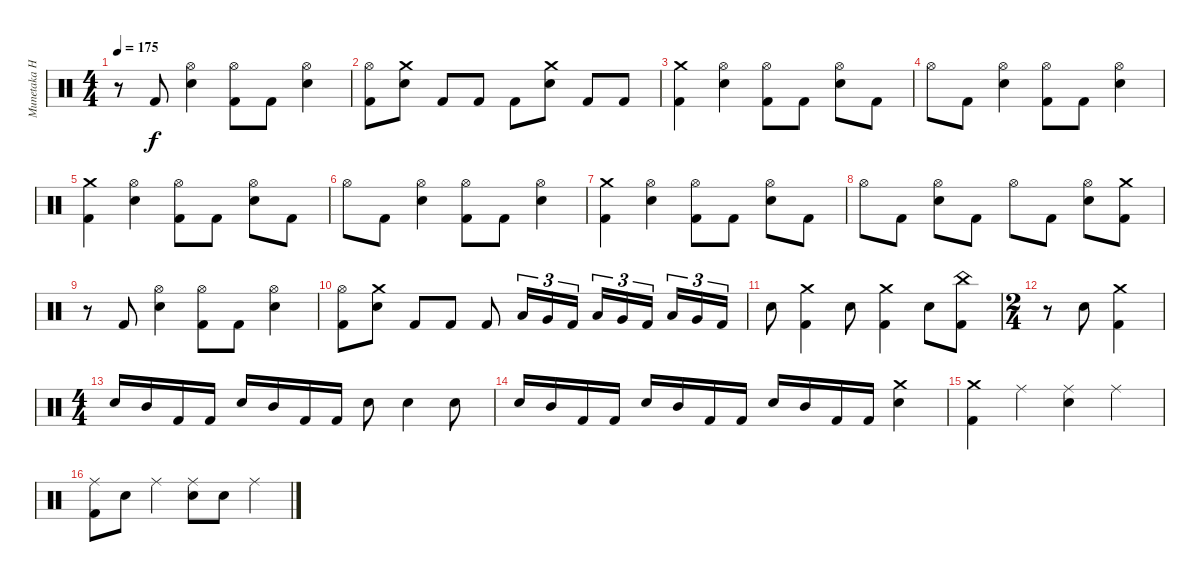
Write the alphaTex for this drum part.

\track ("Munetaka Higuchi" "Munetaka H") {instrument percussion}
\staff {score}
\articulation defaults
\ts (4 4)
\tempo 175
\clef neutral
\ks c
r.8{dy f} "Kick (hit) 2".8 ("Hi-Hat (open)" "Electric Snare (hit)").4 ("Hi-Hat (open)" "Kick (hit) 2").8 "Kick (hit) 2".8 ("Hi-Hat (open)" "Electric Snare (hit)").4 |
("Hi-Hat (open)" "Kick (hit) 2").8 ("Crash medium (hit)" "Electric Snare (hit)").8 "Kick (hit) 2".8 "Kick (hit) 2".8 "Kick (hit) 2".8 ("Crash medium (hit)" "Electric Snare (hit)").8 "Kick (hit) 2".8 "Kick (hit) 2".8 |
("Crash medium (hit)" "Kick (hit) 2").4 ("Hi-Hat (open)" "Electric Snare (hit)").4 ("Hi-Hat (open)" "Kick (hit) 2").8 "Kick (hit) 2".8 ("Hi-Hat (open)" "Electric Snare (hit)").8 "Kick (hit) 2".8 |
"Hi-Hat (open)".8 "Kick (hit) 2".8 ("Hi-Hat (open)" "Electric Snare (hit)").4 ("Hi-Hat (open)" "Kick (hit) 2").8 "Kick (hit) 2".8 ("Hi-Hat (open)" "Electric Snare (hit)").4 |
("Crash medium (hit)" "Kick (hit) 2").4 ("Hi-Hat (open)" "Electric Snare (hit)").4 ("Hi-Hat (open)" "Kick (hit) 2").8 "Kick (hit) 2".8 ("Hi-Hat (open)" "Electric Snare (hit)").8 "Kick (hit) 2".8 |
"Hi-Hat (open)".8 "Kick (hit) 2".8 ("Hi-Hat (open)" "Electric Snare (hit)").4 ("Hi-Hat (open)" "Kick (hit) 2").8 "Kick (hit) 2".8 ("Hi-Hat (open)" "Electric Snare (hit)").4 |
("Crash medium (hit)" "Kick (hit) 2").4 ("Hi-Hat (open)" "Electric Snare (hit)").4 ("Hi-Hat (open)" "Kick (hit) 2").8 "Kick (hit) 2".8 ("Hi-Hat (open)" "Electric Snare (hit)").8 "Kick (hit) 2".8 |
"Hi-Hat (open)".8 "Kick (hit) 2".8 ("Hi-Hat (open)" "Electric Snare (hit)").8 "Kick (hit) 2".8 "Hi-Hat (open)".8 "Kick (hit) 2".8 ("Hi-Hat (open)" "Electric Snare (hit)").8 ("Crash medium (hit)" "Kick (hit) 2").8 |
r.8 "Kick (hit) 2".8 ("Hi-Hat (open)" "Electric Snare (hit)").4 ("Hi-Hat (open)" "Kick (hit) 2").8 "Kick (hit) 2".8 ("Hi-Hat (open)" "Electric Snare (hit)").4 |
("Hi-Hat (open)" "Kick (hit) 2").8 ("Crash medium (hit)" "Electric Snare (hit)").8 "Kick (hit) 2".8 "Kick (hit) 2".8 "Kick (hit) 2".8 "Low Tom (hit)".16{tu (3 2)} "Very Low Tom (hit)".16{tu (3 2)} "Kick (hit) 2".16{tu (3 2)} "Low Tom (hit)".16{tu (3 2)} "Very Low Tom (hit)".16{tu (3 2)} "Kick (hit) 2".16{tu (3 2)} "Low Tom (hit)".16{tu (3 2)} "Very Low Tom (hit)".16{tu (3 2)} "Kick (hit) 2".16{tu (3 2)} |
"Electric Snare (hit)".8 ("Crash medium (hit)" "Kick (hit) 2").4 "Electric Snare (hit)".8 ("Crash medium (hit)" "Kick (hit) 2").4 "Electric Snare (hit)".8 ("China (hit)" "Kick (hit) 2").8 |
\ts (2 4)
r.8 "Electric Snare (hit)".8 ("Crash medium (hit)" "Kick (hit) 2").4 |
\ts (4 4)
"Electric Snare (hit)".16 "Mid Tom (hit)".16 "Kick (hit) 2".16 "Kick (hit) 2".16 "Electric Snare (hit)".16 "Mid Tom (hit)".16 "Kick (hit) 2".16 "Kick (hit) 2".16 "Electric Snare (hit)".8 "Electric Snare (hit)".4 "Electric Snare (hit)".8 |
"Electric Snare (hit)".16 "Mid Tom (hit)".16 "Kick (hit) 2".16 "Kick (hit) 2".16 "Electric Snare (hit)".16 "Mid Tom (hit)".16 "Kick (hit) 2".16 "Kick (hit) 2".16 "Electric Snare (hit)".16 "Mid Tom (hit)".16 "Kick (hit) 2".16 "Kick (hit) 2".16 ("Crash medium (hit)" "Electric Snare (hit)").4 |
("Crash medium (hit)" "Kick (hit) 2").4 "Ride (middle)".4 ("Ride (middle)" "Electric Snare (hit)").4 "Ride (middle)".4 |
("Ride (middle)" "Kick (hit) 2").8 "Electric Snare (hit)".8 "Ride (middle)".4 ("Ride (middle)" "Electric Snare (hit)").8 "Electric Snare (hit)".8 "Ride (middle)".4
